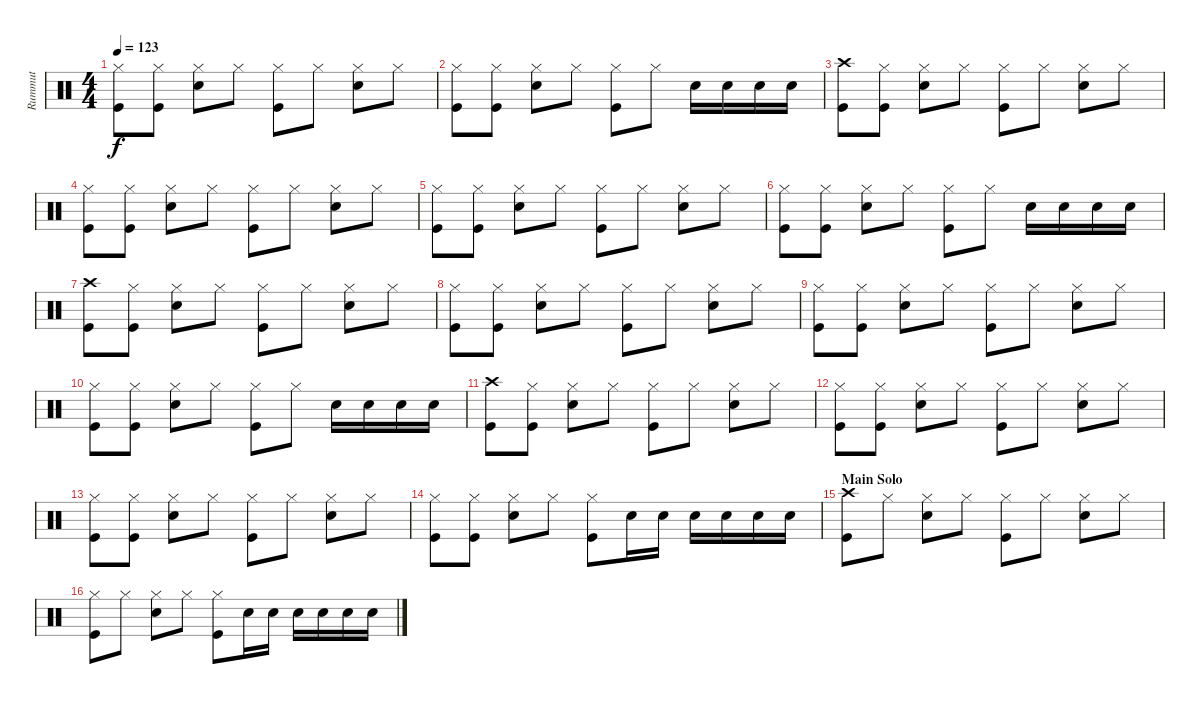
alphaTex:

\track ("Rummut" "Rummut") {instrument percussion}
\staff {score}
\articulation defaults
\ts (4 4)
\tempo 123
\clef neutral
\ks c
("Hi-Hat (closed)" "Kick (hit)").8{dy f} ("Hi-Hat (closed)" "Kick (hit)").8 ("Hi-Hat (closed)" "Snare (hit) 2").8 "Hi-Hat (closed)".8 ("Hi-Hat (closed)" "Kick (hit)").8 "Hi-Hat (closed)".8 ("Hi-Hat (closed)" "Snare (hit) 2").8 "Hi-Hat (closed)".8 |
("Hi-Hat (closed)" "Kick (hit)").8 ("Hi-Hat (closed)" "Kick (hit)").8 ("Hi-Hat (closed)" "Snare (hit) 2").8 "Hi-Hat (closed)".8 ("Hi-Hat (closed)" "Kick (hit)").8 "Hi-Hat (closed)".8 "Snare (hit) 2".16 "Snare (hit) 2".16 "Snare (hit) 2".16 "Snare (hit) 2".16 |
("Crash high (hit)" "Kick (hit)").8 ("Hi-Hat (closed)" "Kick (hit)").8 ("Hi-Hat (closed)" "Snare (hit) 2").8 "Hi-Hat (closed)".8 ("Hi-Hat (closed)" "Kick (hit)").8 "Hi-Hat (closed)".8 ("Hi-Hat (closed)" "Snare (hit) 2").8 "Hi-Hat (closed)".8 |
("Hi-Hat (closed)" "Kick (hit)").8 ("Hi-Hat (closed)" "Kick (hit)").8 ("Hi-Hat (closed)" "Snare (hit) 2").8 "Hi-Hat (closed)".8 ("Hi-Hat (closed)" "Kick (hit)").8 "Hi-Hat (closed)".8 ("Hi-Hat (closed)" "Snare (hit) 2").8 "Hi-Hat (closed)".8 |
("Hi-Hat (closed)" "Kick (hit)").8 ("Hi-Hat (closed)" "Kick (hit)").8 ("Hi-Hat (closed)" "Snare (hit) 2").8 "Hi-Hat (closed)".8 ("Hi-Hat (closed)" "Kick (hit)").8 "Hi-Hat (closed)".8 ("Hi-Hat (closed)" "Snare (hit) 2").8 "Hi-Hat (closed)".8 |
("Hi-Hat (closed)" "Kick (hit)").8 ("Hi-Hat (closed)" "Kick (hit)").8 ("Hi-Hat (closed)" "Snare (hit) 2").8 "Hi-Hat (closed)".8 ("Hi-Hat (closed)" "Kick (hit)").8 "Hi-Hat (closed)".8 "Snare (hit) 2".16 "Snare (hit) 2".16 "Snare (hit) 2".16 "Snare (hit) 2".16 |
("Crash high (hit)" "Kick (hit)").8 ("Hi-Hat (closed)" "Kick (hit)").8 ("Hi-Hat (closed)" "Snare (hit) 2").8 "Hi-Hat (closed)".8 ("Hi-Hat (closed)" "Kick (hit)").8 "Hi-Hat (closed)".8 ("Hi-Hat (closed)" "Snare (hit) 2").8 "Hi-Hat (closed)".8 |
("Hi-Hat (closed)" "Kick (hit)").8 ("Hi-Hat (closed)" "Kick (hit)").8 ("Hi-Hat (closed)" "Snare (hit) 2").8 "Hi-Hat (closed)".8 ("Hi-Hat (closed)" "Kick (hit)").8 "Hi-Hat (closed)".8 ("Hi-Hat (closed)" "Snare (hit) 2").8 "Hi-Hat (closed)".8 |
("Hi-Hat (closed)" "Kick (hit)").8 ("Hi-Hat (closed)" "Kick (hit)").8 ("Hi-Hat (closed)" "Snare (hit) 2").8 "Hi-Hat (closed)".8 ("Hi-Hat (closed)" "Kick (hit)").8 "Hi-Hat (closed)".8 ("Hi-Hat (closed)" "Snare (hit) 2").8 "Hi-Hat (closed)".8 |
("Hi-Hat (closed)" "Kick (hit)").8 ("Hi-Hat (closed)" "Kick (hit)").8 ("Hi-Hat (closed)" "Snare (hit) 2").8 "Hi-Hat (closed)".8 ("Hi-Hat (closed)" "Kick (hit)").8 "Hi-Hat (closed)".8 "Snare (hit) 2".16 "Snare (hit) 2".16 "Snare (hit) 2".16 "Snare (hit) 2".16 |
("Crash high (hit)" "Kick (hit)").8 ("Hi-Hat (closed)" "Kick (hit)").8 ("Hi-Hat (closed)" "Snare (hit) 2").8 "Hi-Hat (closed)".8 ("Hi-Hat (closed)" "Kick (hit)").8 "Hi-Hat (closed)".8 ("Hi-Hat (closed)" "Snare (hit) 2").8 "Hi-Hat (closed)".8 |
("Hi-Hat (closed)" "Kick (hit)").8 ("Hi-Hat (closed)" "Kick (hit)").8 ("Hi-Hat (closed)" "Snare (hit) 2").8 "Hi-Hat (closed)".8 ("Hi-Hat (closed)" "Kick (hit)").8 "Hi-Hat (closed)".8 ("Hi-Hat (closed)" "Snare (hit) 2").8 "Hi-Hat (closed)".8 |
("Hi-Hat (closed)" "Kick (hit)").8 ("Hi-Hat (closed)" "Kick (hit)").8 ("Hi-Hat (closed)" "Snare (hit) 2").8 "Hi-Hat (closed)".8 ("Hi-Hat (closed)" "Kick (hit)").8 "Hi-Hat (closed)".8 ("Hi-Hat (closed)" "Snare (hit) 2").8 "Hi-Hat (closed)".8 |
("Hi-Hat (closed)" "Kick (hit)").8 ("Hi-Hat (closed)" "Kick (hit)").8 ("Hi-Hat (closed)" "Snare (hit) 2").8 "Hi-Hat (closed)".8 ("Hi-Hat (closed)" "Kick (hit)").8 "Snare (hit) 2".16 "Snare (hit) 2".16 "Snare (hit) 2".16 "Snare (hit) 2".16 "Snare (hit) 2".16 "Snare (hit) 2".16 |
\section ("" "Main Solo")
("Crash high (hit)" "Kick (hit)").8 "Hi-Hat (closed)".8 ("Hi-Hat (closed)" "Snare (hit) 2").8 "Hi-Hat (closed)".8 ("Hi-Hat (closed)" "Kick (hit)").8 "Hi-Hat (closed)".8 ("Hi-Hat (closed)" "Snare (hit) 2").8 "Hi-Hat (closed)".8 |
("Hi-Hat (closed)" "Kick (hit)").8 "Hi-Hat (closed)".8 ("Hi-Hat (closed)" "Snare (hit) 2").8 "Hi-Hat (closed)".8 ("Hi-Hat (closed)" "Kick (hit)").8 "Snare (hit) 2".16 "Snare (hit) 2".16 "Snare (hit) 2".16 "Snare (hit) 2".16 "Snare (hit) 2".16 "Snare (hit) 2".16
